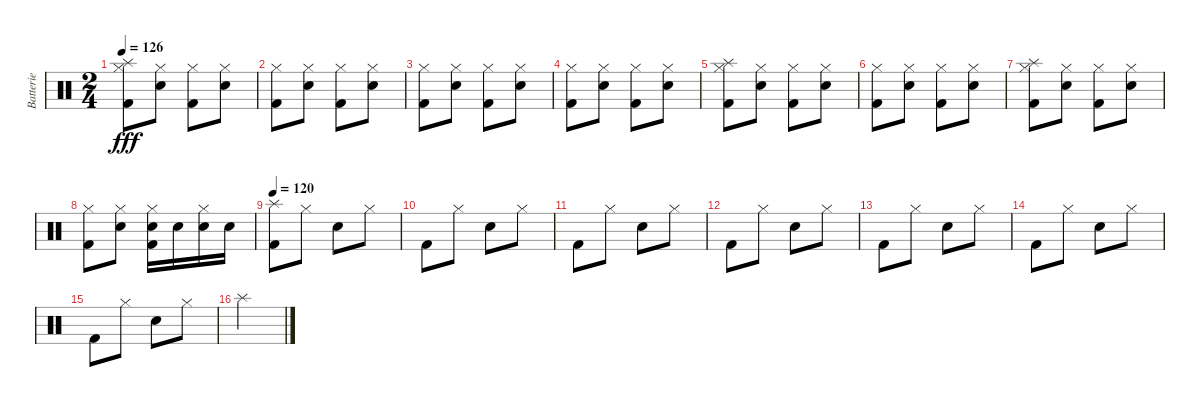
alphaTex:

\track ("Batterie" "Batterie") {instrument percussion}
\staff {score}
\articulation defaults
\ts (2 4)
\tempo 126
\clef neutral
\ks c
("Splash (hit)" "Hi-Hat (closed)" "Kick (hit) 2").8{dy fff} ("Hi-Hat (closed)" "Electric Snare (hit)").8 ("Hi-Hat (closed)" "Kick (hit) 2").8 ("Hi-Hat (closed)" "Electric Snare (hit)").8 |
("Hi-Hat (closed)" "Kick (hit) 2").8 ("Hi-Hat (closed)" "Electric Snare (hit)").8 ("Hi-Hat (closed)" "Kick (hit) 2").8 ("Hi-Hat (closed)" "Electric Snare (hit)").8 |
("Hi-Hat (closed)" "Kick (hit) 2").8 ("Hi-Hat (closed)" "Electric Snare (hit)").8 ("Hi-Hat (closed)" "Kick (hit) 2").8 ("Hi-Hat (closed)" "Electric Snare (hit)").8 |
("Hi-Hat (closed)" "Kick (hit) 2").8 ("Hi-Hat (closed)" "Electric Snare (hit)").8 ("Hi-Hat (closed)" "Kick (hit) 2").8 ("Hi-Hat (closed)" "Electric Snare (hit)").8 |
("Splash (hit)" "Hi-Hat (closed)" "Kick (hit) 2").8 ("Hi-Hat (closed)" "Electric Snare (hit)").8 ("Hi-Hat (closed)" "Kick (hit) 2").8 ("Hi-Hat (closed)" "Electric Snare (hit)").8 |
("Hi-Hat (closed)" "Kick (hit) 2").8 ("Hi-Hat (closed)" "Electric Snare (hit)").8 ("Hi-Hat (closed)" "Kick (hit) 2").8 ("Hi-Hat (closed)" "Electric Snare (hit)").8 |
("Splash (hit)" "Hi-Hat (closed)" "Kick (hit) 2").8 ("Hi-Hat (closed)" "Electric Snare (hit)").8 ("Hi-Hat (closed)" "Kick (hit) 2").8 ("Hi-Hat (closed)" "Electric Snare (hit)").8 |
("Hi-Hat (closed)" "Kick (hit) 2").8 ("Hi-Hat (closed)" "Electric Snare (hit)").8 ("Electric Snare (hit)" "Hi-Hat (closed)" "Kick (hit) 2").16 "Electric Snare (hit)".16 ("Electric Snare (hit)" "Hi-Hat (closed)").16 "Electric Snare (hit)".16 |
\tempo 120
("Kick (hit) 2" "Splash (hit)").8 "Hi-Hat (closed)".8 "Electric Snare (hit)".8 "Hi-Hat (closed)".8 |
"Kick (hit) 2".8 "Hi-Hat (closed)".8 "Electric Snare (hit)".8 "Hi-Hat (closed)".8 |
"Kick (hit) 2".8 "Hi-Hat (closed)".8 "Electric Snare (hit)".8 "Hi-Hat (closed)".8 |
"Kick (hit) 2".8 "Hi-Hat (closed)".8 "Electric Snare (hit)".8 "Hi-Hat (closed)".8 |
"Kick (hit) 2".8 "Hi-Hat (closed)".8 "Electric Snare (hit)".8 "Hi-Hat (closed)".8 |
"Kick (hit) 2".8 "Hi-Hat (closed)".8 "Electric Snare (hit)".8 "Hi-Hat (closed)".8 |
"Kick (hit) 2".8 "Hi-Hat (closed)".8 "Electric Snare (hit)".8 "Hi-Hat (closed)".8 |
"Splash (hit)".2
